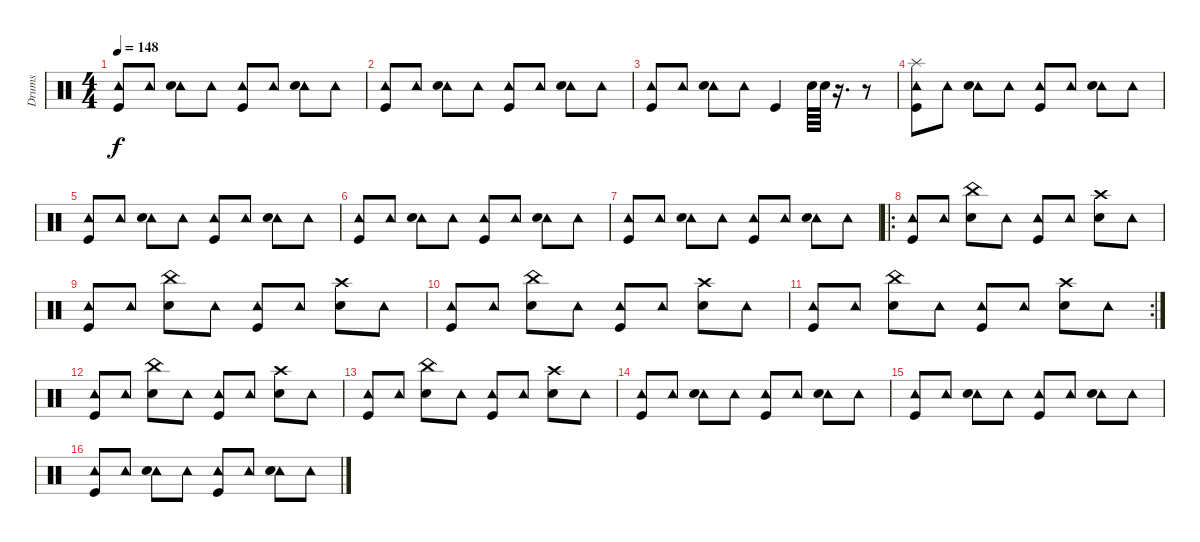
\track ("Drums" "Drums") {instrument percussion}
\staff {score}
\articulation defaults
\ts (4 4)
\tempo 148
\clef neutral
\ks c
("Tambourine (hit)" "Kick (hit)").8{dy f} "Tambourine (hit)".8 ("Tambourine (hit)" "Snare (hit) 2").8 "Tambourine (hit)".8 ("Tambourine (hit)" "Kick (hit)").8 "Tambourine (hit)".8 ("Tambourine (hit)" "Snare (hit) 2").8 "Tambourine (hit)".8 |
("Tambourine (hit)" "Kick (hit)").8 "Tambourine (hit)".8 ("Tambourine (hit)" "Snare (hit) 2").8 "Tambourine (hit)".8 ("Tambourine (hit)" "Kick (hit)").8 "Tambourine (hit)".8 ("Tambourine (hit)" "Snare (hit) 2").8 "Tambourine (hit)".8 |
("Tambourine (hit)" "Kick (hit)").8 "Tambourine (hit)".8 ("Tambourine (hit)" "Snare (hit) 2").8 "Tambourine (hit)".8 "Kick (hit)".4 "Snare (hit) 2".64 "Snare (hit) 2".64 r.16{d} r.8 |
("Tambourine (hit)" "Kick (hit)" "Splash (hit)").8 "Tambourine (hit)".8 ("Tambourine (hit)" "Snare (hit) 2").8 "Tambourine (hit)".8 ("Tambourine (hit)" "Kick (hit)").8 "Tambourine (hit)".8 ("Tambourine (hit)" "Snare (hit) 2").8 "Tambourine (hit)".8 |
("Tambourine (hit)" "Kick (hit)").8 "Tambourine (hit)".8 ("Tambourine (hit)" "Snare (hit) 2").8 "Tambourine (hit)".8 ("Tambourine (hit)" "Kick (hit)").8 "Tambourine (hit)".8 ("Tambourine (hit)" "Snare (hit) 2").8 "Tambourine (hit)".8 |
("Tambourine (hit)" "Kick (hit)").8 "Tambourine (hit)".8 ("Tambourine (hit)" "Snare (hit) 2").8 "Tambourine (hit)".8 ("Tambourine (hit)" "Kick (hit)").8 "Tambourine (hit)".8 ("Tambourine (hit)" "Snare (hit) 2").8 "Tambourine (hit)".8 |
("Tambourine (hit)" "Kick (hit)").8 "Tambourine (hit)".8 ("Tambourine (hit)" "Snare (hit) 2").8 "Tambourine (hit)".8 ("Tambourine (hit)" "Kick (hit)").8 "Tambourine (hit)".8 ("Tambourine (hit)" "Snare (hit) 2").8 "Tambourine (hit)".8 |
\ro
("Tambourine (hit)" "Kick (hit)").8 "Tambourine (hit)".8 ("Snare (hit) 2" "China (hit)").8 "Tambourine (hit)".8 ("Tambourine (hit)" "Kick (hit)").8 "Tambourine (hit)".8 ("Snare (hit) 2" "Crash high (hit)").8 "Tambourine (hit)".8 |
("Tambourine (hit)" "Kick (hit)").8 "Tambourine (hit)".8 ("Snare (hit) 2" "China (hit)").8 "Tambourine (hit)".8 ("Tambourine (hit)" "Kick (hit)").8 "Tambourine (hit)".8 ("Snare (hit) 2" "Crash high (hit)").8 "Tambourine (hit)".8 |
("Tambourine (hit)" "Kick (hit)").8 "Tambourine (hit)".8 ("Snare (hit) 2" "China (hit)").8 "Tambourine (hit)".8 ("Tambourine (hit)" "Kick (hit)").8 "Tambourine (hit)".8 ("Snare (hit) 2" "Crash high (hit)").8 "Tambourine (hit)".8 |
\rc 2
("Tambourine (hit)" "Kick (hit)").8 "Tambourine (hit)".8 ("Snare (hit) 2" "China (hit)").8 "Tambourine (hit)".8 ("Tambourine (hit)" "Kick (hit)").8 "Tambourine (hit)".8 ("Snare (hit) 2" "Crash high (hit)").8 "Tambourine (hit)".8 |
("Tambourine (hit)" "Kick (hit)").8 "Tambourine (hit)".8 ("Snare (hit) 2" "China (hit)").8 "Tambourine (hit)".8 ("Tambourine (hit)" "Kick (hit)").8 "Tambourine (hit)".8 ("Snare (hit) 2" "Crash high (hit)").8 "Tambourine (hit)".8 |
("Tambourine (hit)" "Kick (hit)").8 "Tambourine (hit)".8 ("Snare (hit) 2" "China (hit)").8 "Tambourine (hit)".8 ("Tambourine (hit)" "Kick (hit)").8 "Tambourine (hit)".8 ("Snare (hit) 2" "Crash high (hit)").8 "Tambourine (hit)".8 |
("Tambourine (hit)" "Kick (hit)").8 "Tambourine (hit)".8 ("Tambourine (hit)" "Snare (hit) 2").8 "Tambourine (hit)".8 ("Tambourine (hit)" "Kick (hit)").8 "Tambourine (hit)".8 ("Tambourine (hit)" "Snare (hit) 2").8 "Tambourine (hit)".8 |
("Tambourine (hit)" "Kick (hit)").8 "Tambourine (hit)".8 ("Tambourine (hit)" "Snare (hit) 2").8 "Tambourine (hit)".8 ("Tambourine (hit)" "Kick (hit)").8 "Tambourine (hit)".8 ("Tambourine (hit)" "Snare (hit) 2").8 "Tambourine (hit)".8 |
("Tambourine (hit)" "Kick (hit)").8 "Tambourine (hit)".8 ("Tambourine (hit)" "Snare (hit) 2").8 "Tambourine (hit)".8 ("Tambourine (hit)" "Kick (hit)").8 "Tambourine (hit)".8 ("Tambourine (hit)" "Snare (hit) 2").8 "Tambourine (hit)".8
